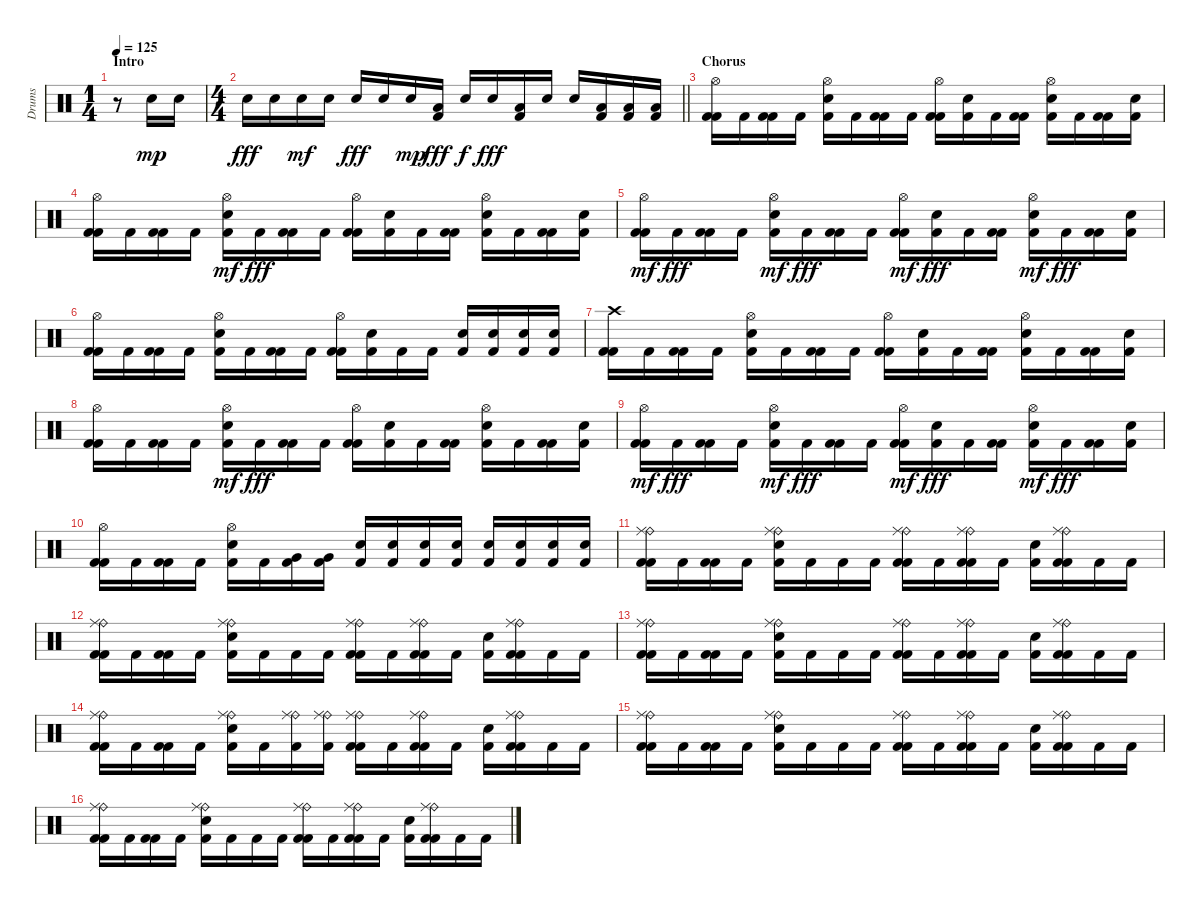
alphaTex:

\track ("Drums" "Drums") {instrument percussion}
\staff {score}
\articulation defaults
\ts (1 4)
\section ("" "Intro")
\tempo 125
\clef neutral
\ks c
r.8{dy mp} "Snare (hit) 2".16 "Snare (hit) 2".16 |
\ts (4 4)
\barLineRight lightlight "Snare (hit) 2".16{dy fff} "Snare (hit) 2".16 "Snare (hit) 2".16{dy mf} "Snare (hit) 2".16 "Snare (hit) 2".16{dy fff} "Snare (hit) 2".16 "Snare (hit) 2".16{dy mp}
("Kick (hit) 2" "Low Tom (hit)").16{dy fff} "Snare (hit) 2".16{dy f} "Snare (hit) 2".16{dy fff} ("Kick (hit) 2" "Low Tom (hit)").16 "Snare (hit) 2".16 "Snare (hit) 2".16 ("Kick (hit) 2" "Low Tom (hit)").16 ("Kick (hit) 2" "Low Floor Tom (hit)").16 ("Kick (hit) 2" "Low Floor Tom (hit)").16 |
\section ("" "Chorus")
("Kick (hit) 2" "Kick (hit) 2" "Hi-Hat (open)").16 "Kick (hit) 2".16 ("Kick (hit) 2" "Kick (hit) 2").16 "Kick (hit) 2".16 ("Kick (hit) 2" "Snare (hit) 2" "Hi-Hat (open)").16 "Kick (hit) 2".16 ("Kick (hit) 2" "Kick (hit) 2").16 "Kick (hit) 2".16 ("Kick (hit) 2" "Kick (hit) 2" "Hi-Hat (open)").16 ("Kick (hit) 2" "Snare (hit) 2").16 "Kick (hit) 2".16 ("Kick (hit) 2" "Kick (hit) 2").16 ("Kick (hit) 2" "Snare (hit) 2" "Hi-Hat (open)").16 "Kick (hit) 2".16 ("Kick (hit) 2" "Kick (hit) 2").16 ("Kick (hit) 2" "Snare (hit) 2").16 |
("Kick (hit) 2" "Kick (hit) 2" "Hi-Hat (open)").16 "Kick (hit) 2".16 ("Kick (hit) 2" "Kick (hit) 2").16 "Kick (hit) 2".16 ("Kick (hit) 2" "Snare (hit) 2" "Hi-Hat (open)").16{dy mf} "Kick (hit) 2".16{dy fff} ("Kick (hit) 2" "Kick (hit) 2").16 "Kick (hit) 2".16 ("Kick (hit) 2" "Kick (hit) 2" "Hi-Hat (open)").16 ("Kick (hit) 2" "Snare (hit) 2").16 "Kick (hit) 2".16 ("Kick (hit) 2" "Kick (hit) 2").16 ("Kick (hit) 2" "Snare (hit) 2" "Hi-Hat (open)").16 "Kick (hit) 2".16 ("Kick (hit) 2" "Kick (hit) 2").16 ("Kick (hit) 2" "Snare (hit) 2").16 |
("Kick (hit) 2" "Kick (hit) 2" "Hi-Hat (open)").16{dy mf} "Kick (hit) 2".16{dy fff} ("Kick (hit) 2" "Kick (hit) 2").16 "Kick (hit) 2".16 ("Kick (hit) 2" "Snare (hit) 2" "Hi-Hat (open)").16{dy mf} "Kick (hit) 2".16{dy fff} ("Kick (hit) 2" "Kick (hit) 2").16 "Kick (hit) 2".16 ("Kick (hit) 2" "Kick (hit) 2" "Hi-Hat (open)").16{dy mf} ("Kick (hit) 2" "Snare (hit) 2").16{dy fff} "Kick (hit) 2".16 ("Kick (hit) 2" "Kick (hit) 2").16 ("Kick (hit) 2" "Snare (hit) 2" "Hi-Hat (open)").16{dy mf} "Kick (hit) 2".16{dy fff} ("Kick (hit) 2" "Kick (hit) 2").16 ("Kick (hit) 2" "Snare (hit) 2").16 |
("Kick (hit) 2" "Kick (hit) 2" "Hi-Hat (open)").16 "Kick (hit) 2".16 ("Kick (hit) 2" "Kick (hit) 2").16 "Kick (hit) 2".16 ("Kick (hit) 2" "Snare (hit) 2" "Hi-Hat (open)").16 "Kick (hit) 2".16 ("Kick (hit) 2" "Kick (hit) 2").16 "Kick (hit) 2".16 ("Kick (hit) 2" "Kick (hit) 2" "Hi-Hat (open)").16 ("Kick (hit) 2" "Snare (hit) 2").16 "Kick (hit) 2".16 "Kick (hit) 2".16 ("Kick (hit) 2" "Snare (hit) 2").16 ("Kick (hit) 2" "Snare (hit) 2").16 ("Kick (hit) 2" "Snare (hit) 2").16 ("Kick (hit) 2" "Snare (hit) 2").16 |
("Kick (hit) 2" "Kick (hit) 2" "Crash high (hit)").16 "Kick (hit) 2".16 ("Kick (hit) 2" "Kick (hit) 2").16 "Kick (hit) 2".16 ("Kick (hit) 2" "Snare (hit) 2" "Hi-Hat (open)").16 "Kick (hit) 2".16 ("Kick (hit) 2" "Kick (hit) 2").16 "Kick (hit) 2".16 ("Kick (hit) 2" "Kick (hit) 2" "Hi-Hat (open)").16 ("Kick (hit) 2" "Snare (hit) 2").16 "Kick (hit) 2".16 ("Kick (hit) 2" "Kick (hit) 2").16 ("Kick (hit) 2" "Snare (hit) 2" "Hi-Hat (open)").16 "Kick (hit) 2".16 ("Kick (hit) 2" "Kick (hit) 2").16 ("Kick (hit) 2" "Snare (hit) 2").16 |
("Kick (hit) 2" "Kick (hit) 2" "Hi-Hat (open)").16 "Kick (hit) 2".16 ("Kick (hit) 2" "Kick (hit) 2").16 "Kick (hit) 2".16 ("Kick (hit) 2" "Snare (hit) 2" "Hi-Hat (open)").16{dy mf} "Kick (hit) 2".16{dy fff} ("Kick (hit) 2" "Kick (hit) 2").16 "Kick (hit) 2".16 ("Kick (hit) 2" "Kick (hit) 2" "Hi-Hat (open)").16 ("Kick (hit) 2" "Snare (hit) 2").16 "Kick (hit) 2".16 ("Kick (hit) 2" "Kick (hit) 2").16 ("Kick (hit) 2" "Snare (hit) 2" "Hi-Hat (open)").16 "Kick (hit) 2".16 ("Kick (hit) 2" "Kick (hit) 2").16 ("Kick (hit) 2" "Snare (hit) 2").16 |
("Kick (hit) 2" "Kick (hit) 2" "Hi-Hat (open)").16{dy mf} "Kick (hit) 2".16{dy fff} ("Kick (hit) 2" "Kick (hit) 2").16 "Kick (hit) 2".16 ("Kick (hit) 2" "Snare (hit) 2" "Hi-Hat (open)").16{dy mf} "Kick (hit) 2".16{dy fff} ("Kick (hit) 2" "Kick (hit) 2").16 "Kick (hit) 2".16 ("Kick (hit) 2" "Kick (hit) 2" "Hi-Hat (open)").16{dy mf} ("Kick (hit) 2" "Snare (hit) 2").16{dy fff} "Kick (hit) 2".16 ("Kick (hit) 2" "Kick (hit) 2").16 ("Kick (hit) 2" "Snare (hit) 2" "Hi-Hat (open)").16{dy mf} "Kick (hit) 2".16{dy fff} ("Kick (hit) 2" "Kick (hit) 2").16 ("Kick (hit) 2" "Snare (hit) 2").16 |
("Kick (hit) 2" "Kick (hit) 2" "Hi-Hat (open)").16 "Kick (hit) 2".16 ("Kick (hit) 2" "Kick (hit) 2").16 "Kick (hit) 2".16 ("Kick (hit) 2" "Snare (hit) 2" "Hi-Hat (open)").16 "Kick (hit) 2".16 ("Kick (hit) 2" "Very Low Tom (hit)").16 ("Kick (hit) 2" "Very Low Tom (hit)").16 ("Kick (hit) 2" "Snare (hit) 2").16 ("Kick (hit) 2" "Snare (hit) 2").16 ("Kick (hit) 2" "Snare (hit) 2").16 ("Kick (hit) 2" "Snare (hit) 2").16 ("Kick (hit) 2" "Snare (hit) 2").16 ("Kick (hit) 2" "Snare (hit) 2").16 ("Kick (hit) 2" "Snare (hit) 2").16 ("Kick (hit) 2" "Snare (hit) 2").16 |
("Kick (hit) 2" "Kick (hit) 2" "Ride (bell)" "Ride (middle)").16 "Kick (hit) 2".16 ("Kick (hit) 2" "Kick (hit) 2").16 "Kick (hit) 2".16 ("Kick (hit) 2" "Snare (hit) 2" "Ride (bell)" "Ride (middle)").16 "Kick (hit) 2".16 "Kick (hit) 2".16 "Kick (hit) 2".16 ("Kick (hit) 2" "Kick (hit) 2" "Ride (bell)" "Ride (middle)").16 "Kick (hit) 2".16 ("Kick (hit) 2" "Kick (hit) 2" "Ride (bell)" "Ride (middle)").16 "Kick (hit) 2".16 ("Kick (hit) 2" "Snare (hit) 2").16 ("Kick (hit) 2" "Kick (hit) 2" "Ride (bell)" "Ride (middle)").16 "Kick (hit) 2".16 "Kick (hit) 2".16 |
("Kick (hit) 2" "Kick (hit) 2" "Ride (bell)" "Ride (middle)").16 "Kick (hit) 2".16 ("Kick (hit) 2" "Kick (hit) 2").16 "Kick (hit) 2".16 ("Kick (hit) 2" "Snare (hit) 2" "Ride (bell)" "Ride (middle)").16 "Kick (hit) 2".16 "Kick (hit) 2".16 "Kick (hit) 2".16 ("Kick (hit) 2" "Kick (hit) 2" "Ride (bell)" "Ride (middle)").16 "Kick (hit) 2".16 ("Kick (hit) 2" "Kick (hit) 2" "Ride (bell)" "Ride (middle)").16 "Kick (hit) 2".16 ("Kick (hit) 2" "Snare (hit) 2").16 ("Kick (hit) 2" "Kick (hit) 2" "Ride (bell)" "Ride (middle)").16 "Kick (hit) 2".16 "Kick (hit) 2".16 |
("Kick (hit) 2" "Kick (hit) 2" "Ride (bell)" "Ride (middle)").16 "Kick (hit) 2".16 ("Kick (hit) 2" "Kick (hit) 2").16 "Kick (hit) 2".16 ("Kick (hit) 2" "Snare (hit) 2" "Ride (bell)" "Ride (middle)").16 "Kick (hit) 2".16 "Kick (hit) 2".16 "Kick (hit) 2".16 ("Kick (hit) 2" "Kick (hit) 2" "Ride (bell)" "Ride (middle)").16 "Kick (hit) 2".16 ("Kick (hit) 2" "Kick (hit) 2" "Ride (bell)" "Ride (middle)").16 "Kick (hit) 2".16 ("Kick (hit) 2" "Snare (hit) 2").16 ("Kick (hit) 2" "Kick (hit) 2" "Ride (bell)" "Ride (middle)").16 "Kick (hit) 2".16 "Kick (hit) 2".16 |
("Kick (hit) 2" "Kick (hit) 2" "Ride (bell)" "Ride (middle)").16 "Kick (hit) 2".16 ("Kick (hit) 2" "Kick (hit) 2").16 "Kick (hit) 2".16 ("Kick (hit) 2" "Snare (hit) 2" "Ride (bell)" "Ride (middle)").16 "Kick (hit) 2".16 ("Kick (hit) 2" "Ride (bell)" "Ride (middle)").16 ("Kick (hit) 2" "Ride (bell)" "Ride (middle)").16 ("Kick (hit) 2" "Kick (hit) 2" "Ride (bell)" "Ride (middle)").16 "Kick (hit) 2".16 ("Kick (hit) 2" "Kick (hit) 2" "Ride (bell)" "Ride (middle)").16 "Kick (hit) 2".16 ("Kick (hit) 2" "Snare (hit) 2").16 ("Kick (hit) 2" "Kick (hit) 2" "Ride (bell)" "Ride (middle)").16 "Kick (hit) 2".16 "Kick (hit) 2".16 |
("Kick (hit) 2" "Kick (hit) 2" "Ride (bell)" "Ride (middle)").16 "Kick (hit) 2".16 ("Kick (hit) 2" "Kick (hit) 2").16 "Kick (hit) 2".16 ("Kick (hit) 2" "Snare (hit) 2" "Ride (bell)" "Ride (middle)").16 "Kick (hit) 2".16 "Kick (hit) 2".16 "Kick (hit) 2".16 ("Kick (hit) 2" "Kick (hit) 2" "Ride (bell)" "Ride (middle)").16 "Kick (hit) 2".16 ("Kick (hit) 2" "Kick (hit) 2" "Ride (bell)" "Ride (middle)").16 "Kick (hit) 2".16 ("Kick (hit) 2" "Snare (hit) 2").16 ("Kick (hit) 2" "Kick (hit) 2" "Ride (bell)" "Ride (middle)").16 "Kick (hit) 2".16 "Kick (hit) 2".16 |
("Kick (hit) 2" "Kick (hit) 2" "Ride (bell)" "Ride (middle)").16 "Kick (hit) 2".16 ("Kick (hit) 2" "Kick (hit) 2").16 "Kick (hit) 2".16 ("Kick (hit) 2" "Snare (hit) 2" "Ride (bell)" "Ride (middle)").16 "Kick (hit) 2".16 "Kick (hit) 2".16 "Kick (hit) 2".16 ("Kick (hit) 2" "Kick (hit) 2" "Ride (bell)" "Ride (middle)").16 "Kick (hit) 2".16 ("Kick (hit) 2" "Kick (hit) 2" "Ride (bell)" "Ride (middle)").16 "Kick (hit) 2".16 ("Kick (hit) 2" "Snare (hit) 2").16 ("Kick (hit) 2" "Kick (hit) 2" "Ride (bell)" "Ride (middle)").16 "Kick (hit) 2".16 "Kick (hit) 2".16
